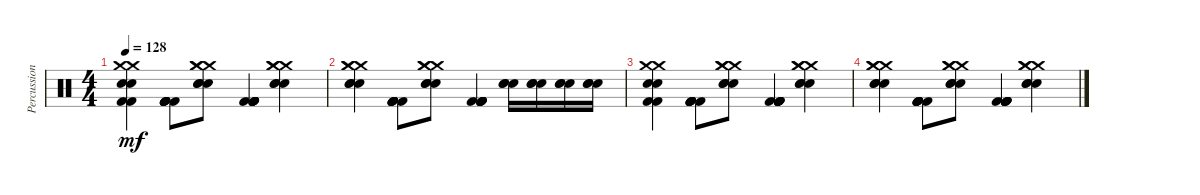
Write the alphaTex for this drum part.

\track ("Percussion" "Percussion") {instrument percussion}
\staff {score}
\articulation defaults
\ts (4 4)
\tempo 128
\clef neutral
\ks c
("Snare (hit) 2" "Snare (hit) 2" "Kick (hit) 2" "Kick (hit) 2" "Crash medium (hit)" "Crash medium (hit)").4{dy mf} ("Kick (hit) 2" "Kick (hit) 2" "Kick (hit) 2" "Kick (hit) 2" "Kick (hit) 2" "Kick (hit) 2").8 ("Snare (hit) 2" "Crash medium (hit)" "Snare (hit) 2" "Crash medium (hit)" "Snare (hit) 2" "Crash medium (hit)").8 ("Kick (hit) 2" "Kick (hit) 2" "Kick (hit) 2" "Kick (hit) 2" "Kick (hit) 2" "Kick (hit) 2").4 ("Snare (hit) 2" "Crash medium (hit)" "Snare (hit) 2" "Crash medium (hit)" "Snare (hit) 2" "Crash medium (hit)").4 |
("Snare (hit) 2" "Crash medium (hit)" "Snare (hit) 2" "Crash medium (hit)" "Snare (hit) 2" "Crash medium (hit)").4 ("Kick (hit) 2" "Kick (hit) 2" "Kick (hit) 2" "Kick (hit) 2" "Kick (hit) 2" "Kick (hit) 2").8 ("Snare (hit) 2" "Crash medium (hit)" "Snare (hit) 2" "Crash medium (hit)" "Snare (hit) 2" "Crash medium (hit)").8 ("Kick (hit) 2" "Kick (hit) 2" "Kick (hit) 2" "Kick (hit) 2" "Kick (hit) 2" "Kick (hit) 2").4 ("Snare (hit) 2" "Snare (hit) 2" "Snare (hit) 2").16 ("Snare (hit) 2" "Snare (hit) 2" "Snare (hit) 2").16 ("Snare (hit) 2" "Snare (hit) 2" "Snare (hit) 2").16 ("Snare (hit) 2" "Snare (hit) 2" "Snare (hit) 2").16 |
("Snare (hit) 2" "Snare (hit) 2" "Kick (hit) 2" "Kick (hit) 2" "Crash medium (hit)" "Crash medium (hit)").4 ("Kick (hit) 2" "Kick (hit) 2" "Kick (hit) 2" "Kick (hit) 2" "Kick (hit) 2" "Kick (hit) 2").8 ("Snare (hit) 2" "Crash medium (hit)" "Snare (hit) 2" "Crash medium (hit)" "Snare (hit) 2" "Crash medium (hit)").8 ("Kick (hit) 2" "Kick (hit) 2" "Kick (hit) 2" "Kick (hit) 2" "Kick (hit) 2" "Kick (hit) 2").4 ("Snare (hit) 2" "Crash medium (hit)" "Snare (hit) 2" "Crash medium (hit)" "Snare (hit) 2" "Crash medium (hit)").4 |
("Snare (hit) 2" "Crash medium (hit)" "Snare (hit) 2" "Crash medium (hit)" "Snare (hit) 2" "Crash medium (hit)").4 ("Kick (hit) 2" "Kick (hit) 2" "Kick (hit) 2" "Kick (hit) 2" "Kick (hit) 2" "Kick (hit) 2").8 ("Snare (hit) 2" "Crash medium (hit)" "Snare (hit) 2" "Crash medium (hit)" "Snare (hit) 2" "Crash medium (hit)").8 ("Kick (hit) 2" "Kick (hit) 2" "Kick (hit) 2" "Kick (hit) 2" "Kick (hit) 2" "Kick (hit) 2").4 ("Snare (hit) 2" "Crash medium (hit)" "Snare (hit) 2" "Crash medium (hit)" "Snare (hit) 2" "Crash medium (hit)").4
